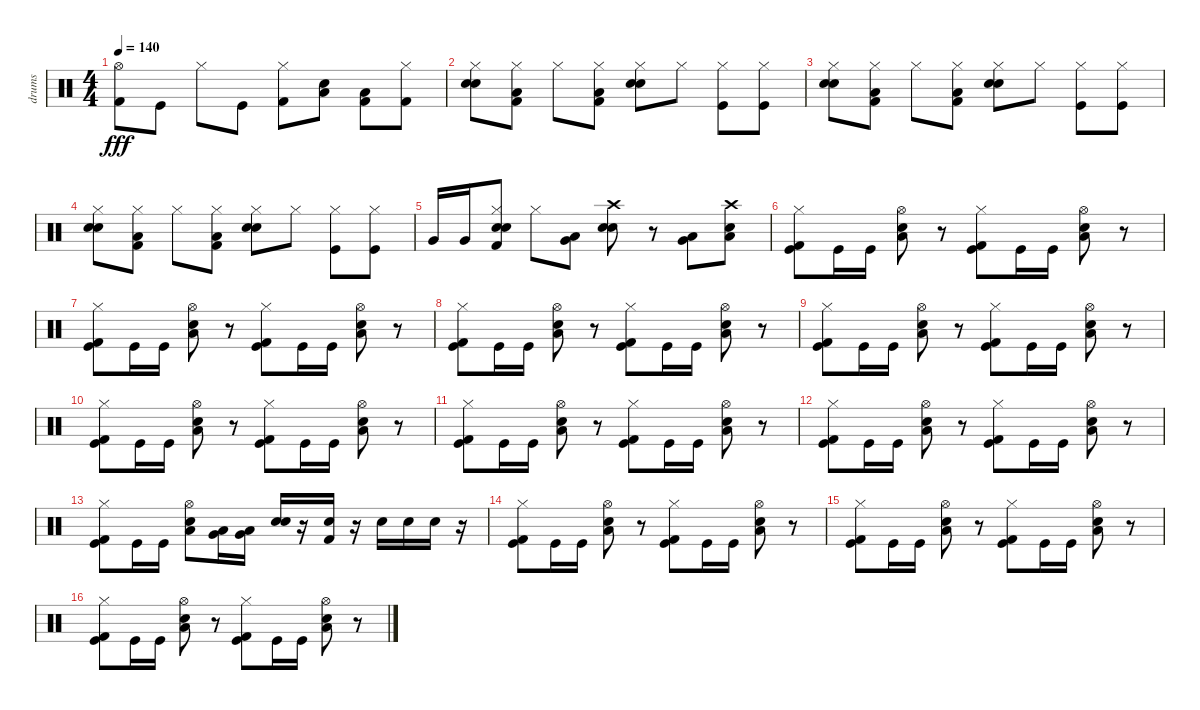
\track ("drums" "drums") {instrument percussion}
\staff {score}
\articulation defaults
\ts (4 4)
\tempo 140
\clef neutral
\ks c
("Hi-Hat (open)" "Kick (hit) 2").8{dy fff} "Kick (hit)".8 "Hi-Hat (closed)".8 "Kick (hit)".8 ("Kick (hit) 2" "Hi-Hat (closed)").8 ("Snare (hit) 2" "Low Tom (hit)").8 ("Low Floor Tom (hit)" "Kick (hit) 2").8 ("Kick (hit) 2" "Hi-Hat (closed)").8 |
("Electric Snare (hit)" "Snare (hit) 2" "Hi-Hat (closed)").8 ("Hi-Hat (closed)" "Low Floor Tom (hit)" "Kick (hit) 2").8 "Hi-Hat (closed)".8 ("Hi-Hat (closed)" "Low Floor Tom (hit)" "Kick (hit) 2").8 ("Hi-Hat (closed)" "Electric Snare (hit)" "Snare (hit) 2").8 "Hi-Hat (closed)".8 ("Hi-Hat (closed)" "Kick (hit)").8 ("Hi-Hat (closed)" "Kick (hit)").8 |
("Electric Snare (hit)" "Snare (hit) 2" "Hi-Hat (closed)").8 ("Hi-Hat (closed)" "Low Floor Tom (hit)" "Kick (hit) 2").8 "Hi-Hat (closed)".8 ("Hi-Hat (closed)" "Low Floor Tom (hit)" "Kick (hit) 2").8 ("Hi-Hat (closed)" "Electric Snare (hit)" "Snare (hit) 2").8 "Hi-Hat (closed)".8 ("Hi-Hat (closed)" "Kick (hit)").8 ("Hi-Hat (closed)" "Kick (hit)").8 |
("Electric Snare (hit)" "Snare (hit) 2" "Hi-Hat (closed)").8 ("Hi-Hat (closed)" "Low Floor Tom (hit)" "Kick (hit) 2").8 "Hi-Hat (closed)".8 ("Hi-Hat (closed)" "Low Floor Tom (hit)" "Kick (hit) 2").8 ("Hi-Hat (closed)" "Electric Snare (hit)" "Snare (hit) 2").8 "Hi-Hat (closed)".8 ("Hi-Hat (closed)" "Kick (hit)").8 ("Hi-Hat (closed)" "Kick (hit)").8 |
"Very Low Tom (hit)".16 "Very Low Tom (hit)".16 ("Hi-Hat (closed)" "Kick (hit) 2" "Electric Snare (hit)" "Snare (hit) 2").8 "Hi-Hat (closed)".8 ("Low Tom (hit)" "Very Low Tom (hit)").8 ("Crash high (hit)" "Snare (hit) 2" "Electric Snare (hit)").8 r.8 ("Very Low Tom (hit)" "Low Tom (hit)").8 ("Crash high (hit)" "Low Tom (hit)" "Snare (hit) 2").8 |
("Hi-Hat (closed)" "Kick (hit)" "Kick (hit) 2").8 "Kick (hit)".16 "Kick (hit)".16 ("Hi-Hat (open)" "Low Tom (hit)" "Snare (hit) 2").8 r.8 ("Hi-Hat (closed)" "Kick (hit)" "Kick (hit) 2").8 "Kick (hit)".16 "Kick (hit)".16 ("Hi-Hat (open)" "Low Tom (hit)" "Snare (hit) 2").8 r.8 |
("Hi-Hat (closed)" "Kick (hit)" "Kick (hit) 2").8 "Kick (hit)".16 "Kick (hit)".16 ("Hi-Hat (open)" "Low Tom (hit)" "Snare (hit) 2").8 r.8 ("Hi-Hat (closed)" "Kick (hit)" "Kick (hit) 2").8 "Kick (hit)".16 "Kick (hit)".16 ("Hi-Hat (open)" "Low Tom (hit)" "Snare (hit) 2").8 r.8 |
("Hi-Hat (closed)" "Kick (hit)" "Kick (hit) 2").8 "Kick (hit)".16 "Kick (hit)".16 ("Hi-Hat (open)" "Low Tom (hit)" "Snare (hit) 2").8 r.8 ("Hi-Hat (closed)" "Kick (hit)" "Kick (hit) 2").8 "Kick (hit)".16 "Kick (hit)".16 ("Hi-Hat (open)" "Low Tom (hit)" "Snare (hit) 2").8 r.8 |
("Hi-Hat (closed)" "Kick (hit)" "Kick (hit) 2").8 "Kick (hit)".16 "Kick (hit)".16 ("Hi-Hat (open)" "Low Tom (hit)" "Snare (hit) 2").8 r.8 ("Hi-Hat (closed)" "Kick (hit)" "Kick (hit) 2").8 "Kick (hit)".16 "Kick (hit)".16 ("Hi-Hat (open)" "Low Tom (hit)" "Snare (hit) 2").8 r.8 |
("Hi-Hat (closed)" "Kick (hit)" "Kick (hit) 2").8 "Kick (hit)".16 "Kick (hit)".16 ("Hi-Hat (open)" "Low Tom (hit)" "Snare (hit) 2").8 r.8 ("Hi-Hat (closed)" "Kick (hit)" "Kick (hit) 2").8 "Kick (hit)".16 "Kick (hit)".16 ("Hi-Hat (open)" "Low Tom (hit)" "Snare (hit) 2").8 r.8 |
("Hi-Hat (closed)" "Kick (hit)" "Kick (hit) 2").8 "Kick (hit)".16 "Kick (hit)".16 ("Hi-Hat (open)" "Low Tom (hit)" "Snare (hit) 2").8 r.8 ("Hi-Hat (closed)" "Kick (hit)" "Kick (hit) 2").8 "Kick (hit)".16 "Kick (hit)".16 ("Hi-Hat (open)" "Low Tom (hit)" "Snare (hit) 2").8 r.8 |
("Hi-Hat (closed)" "Kick (hit)" "Kick (hit) 2").8 "Kick (hit)".16 "Kick (hit)".16 ("Hi-Hat (open)" "Low Tom (hit)" "Snare (hit) 2").8 r.8 ("Hi-Hat (closed)" "Kick (hit)" "Kick (hit) 2").8 "Kick (hit)".16 "Kick (hit)".16 ("Hi-Hat (open)" "Low Tom (hit)" "Snare (hit) 2").8 r.8 |
("Hi-Hat (closed)" "Kick (hit)" "Kick (hit) 2").8 "Kick (hit)".16 "Kick (hit)".16 ("Hi-Hat (open)" "Low Tom (hit)" "Snare (hit) 2").8 ("Very Low Tom (hit)" "Low Tom (hit)").16 ("Very Low Tom (hit)" "Low Tom (hit)").16 ("Electric Snare (hit)" "Snare (hit) 2").16 r.16 ("Kick (hit) 2" "Snare (hit) 2").16 r.16 "Snare (hit) 2".16 "Snare (hit) 2".16 "Snare (hit) 2".16 r.16 |
("Hi-Hat (closed)" "Kick (hit)" "Kick (hit) 2").8 "Kick (hit)".16 "Kick (hit)".16 ("Hi-Hat (open)" "Low Tom (hit)" "Snare (hit) 2").8 r.8 ("Hi-Hat (closed)" "Kick (hit)" "Kick (hit) 2").8 "Kick (hit)".16 "Kick (hit)".16 ("Hi-Hat (open)" "Low Tom (hit)" "Snare (hit) 2").8 r.8 |
("Hi-Hat (closed)" "Kick (hit)" "Kick (hit) 2").8 "Kick (hit)".16 "Kick (hit)".16 ("Hi-Hat (open)" "Low Tom (hit)" "Snare (hit) 2").8 r.8 ("Hi-Hat (closed)" "Kick (hit)" "Kick (hit) 2").8 "Kick (hit)".16 "Kick (hit)".16 ("Hi-Hat (open)" "Low Tom (hit)" "Snare (hit) 2").8 r.8 |
("Hi-Hat (closed)" "Kick (hit)" "Kick (hit) 2").8 "Kick (hit)".16 "Kick (hit)".16 ("Hi-Hat (open)" "Low Tom (hit)" "Snare (hit) 2").8 r.8 ("Hi-Hat (closed)" "Kick (hit)" "Kick (hit) 2").8 "Kick (hit)".16 "Kick (hit)".16 ("Hi-Hat (open)" "Low Tom (hit)" "Snare (hit) 2").8 r.8
